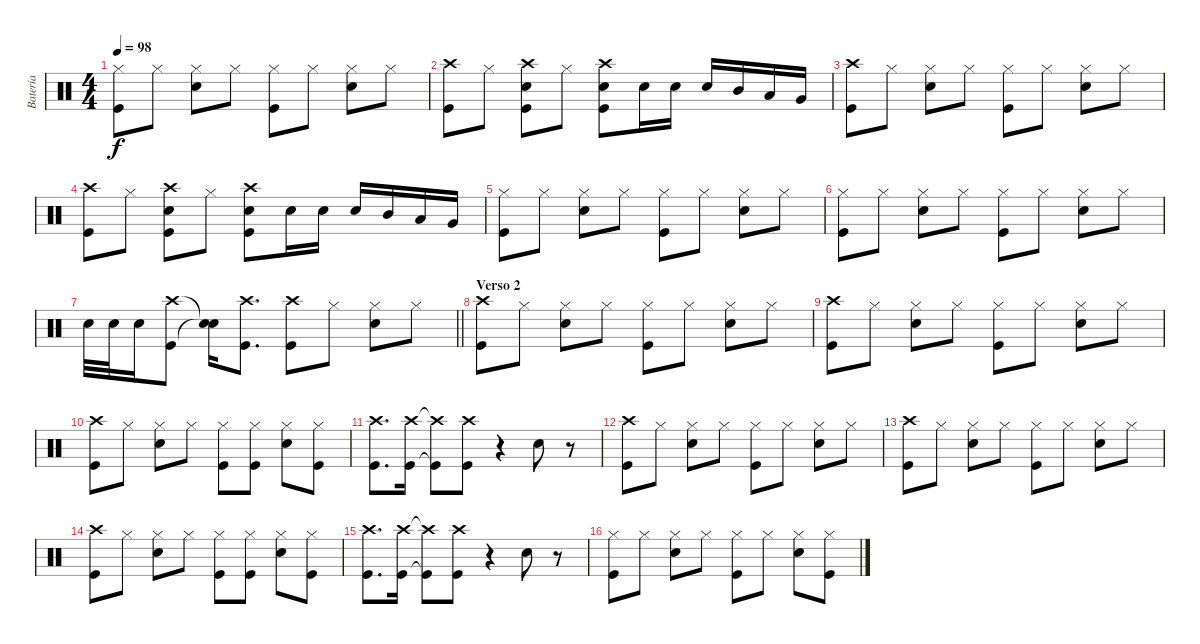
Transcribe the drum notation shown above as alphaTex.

\track ("Batería" "Batería") {instrument percussion}
\staff {score}
\articulation defaults
\ts (4 4)
\tempo 98
\clef neutral
\ks c
("Hi-Hat (closed)" "Kick (hit)").8{dy f} "Hi-Hat (closed)".8 ("Hi-Hat (closed)" "Electric Snare (hit)").8 "Hi-Hat (closed)".8 ("Hi-Hat (closed)" "Kick (hit)").8 "Hi-Hat (closed)".8 ("Hi-Hat (closed)" "Electric Snare (hit)").8 "Hi-Hat (closed)".8 |
("Crash high (hit)" "Kick (hit)").8 "Hi-Hat (closed)".8 ("Crash high (hit)" "Electric Snare (hit)" "Kick (hit)").8 "Hi-Hat (closed)".8 ("Crash high (hit)" "Electric Snare (hit)" "Kick (hit)").8 "Electric Snare (hit)".16 "Electric Snare (hit)".16 "Electric Snare (hit)".16 "Mid Tom (hit)".16 "Low Tom (hit)".16 "Very Low Tom (hit)".16 |
("Crash high (hit)" "Kick (hit)").8 "Hi-Hat (closed)".8 ("Hi-Hat (closed)" "Electric Snare (hit)").8 "Hi-Hat (closed)".8 ("Hi-Hat (closed)" "Kick (hit)").8 "Hi-Hat (closed)".8 ("Hi-Hat (closed)" "Electric Snare (hit)").8 "Hi-Hat (closed)".8 |
("Crash high (hit)" "Kick (hit)").8 "Hi-Hat (closed)".8 ("Crash high (hit)" "Electric Snare (hit)" "Kick (hit)").8 "Hi-Hat (closed)".8 ("Crash high (hit)" "Electric Snare (hit)" "Kick (hit)").8 "Electric Snare (hit)".16 "Electric Snare (hit)".16 "Electric Snare (hit)".16 "Mid Tom (hit)".16 "Low Tom (hit)".16 "Very Low Tom (hit)".16 |
("Hi-Hat (closed)" "Kick (hit)").8 "Hi-Hat (closed)".8 ("Hi-Hat (closed)" "Electric Snare (hit)").8 "Hi-Hat (closed)".8 ("Hi-Hat (closed)" "Kick (hit)").8 "Hi-Hat (closed)".8 ("Hi-Hat (closed)" "Electric Snare (hit)").8 "Hi-Hat (closed)".8 |
("Hi-Hat (closed)" "Kick (hit)").8 "Hi-Hat (closed)".8 ("Hi-Hat (closed)" "Electric Snare (hit)").8 "Hi-Hat (closed)".8 ("Hi-Hat (closed)" "Kick (hit)").8 "Hi-Hat (closed)".8 ("Hi-Hat (closed)" "Electric Snare (hit)").8 "Hi-Hat (closed)".8 |
\barLineRight lightlight "Electric Snare (hit)".32 "Electric Snare (hit)".32 "Electric Snare (hit)".16
("Crash high (hit)" "Kick (hit)").8 ("Snare (hit)"{t} "Snare (hit)"{t}).16 ("Crash high (hit)" "Kick (hit)").8{d} ("Crash high (hit)" "Kick (hit)").8 "Hi-Hat (closed)".8 ("Hi-Hat (closed)" "Electric Snare (hit)").8 "Hi-Hat (closed)".8 |
\section ("" "Verso 2")
("Crash high (hit)" "Kick (hit)").8 "Hi-Hat (closed)".8 ("Hi-Hat (closed)" "Electric Snare (hit)").8 "Hi-Hat (closed)".8 ("Hi-Hat (closed)" "Kick (hit)").8 "Hi-Hat (closed)".8 ("Hi-Hat (closed)" "Electric Snare (hit)").8 "Hi-Hat (closed)".8 |
("Crash high (hit)" "Kick (hit)").8 "Hi-Hat (closed)".8 ("Hi-Hat (closed)" "Electric Snare (hit)").8 "Hi-Hat (closed)".8 ("Hi-Hat (closed)" "Kick (hit)").8 "Hi-Hat (closed)".8 ("Hi-Hat (closed)" "Electric Snare (hit)").8 "Hi-Hat (closed)".8 |
("Crash high (hit)" "Kick (hit)").8 "Hi-Hat (closed)".8 ("Hi-Hat (closed)" "Electric Snare (hit)").8 "Hi-Hat (closed)".8 ("Hi-Hat (closed)" "Kick (hit)").8 ("Hi-Hat (closed)" "Kick (hit)").8 ("Hi-Hat (closed)" "Electric Snare (hit)").8 ("Hi-Hat (closed)" "Kick (hit)").8 |
("Crash high (hit)" "Kick (hit)").8{d} ("Crash high (hit)" "Kick (hit)").16 ("Crash high (hit)"{t} "Kick (hit)"{t}).8 ("Crash high (hit)" "Kick (hit)").8 r.4 "Electric Snare (hit)".8 r.8 |
("Crash high (hit)" "Kick (hit)").8 "Hi-Hat (closed)".8 ("Hi-Hat (closed)" "Electric Snare (hit)").8 "Hi-Hat (closed)".8 ("Hi-Hat (closed)" "Kick (hit)").8 "Hi-Hat (closed)".8 ("Hi-Hat (closed)" "Electric Snare (hit)").8 "Hi-Hat (closed)".8 |
("Crash high (hit)" "Kick (hit)").8 "Hi-Hat (closed)".8 ("Hi-Hat (closed)" "Electric Snare (hit)").8 "Hi-Hat (closed)".8 ("Hi-Hat (closed)" "Kick (hit)").8 "Hi-Hat (closed)".8 ("Hi-Hat (closed)" "Electric Snare (hit)").8 "Hi-Hat (closed)".8 |
("Crash high (hit)" "Kick (hit)").8 "Hi-Hat (closed)".8 ("Hi-Hat (closed)" "Electric Snare (hit)").8 "Hi-Hat (closed)".8 ("Hi-Hat (closed)" "Kick (hit)").8 ("Hi-Hat (closed)" "Kick (hit)").8 ("Hi-Hat (closed)" "Electric Snare (hit)").8 ("Hi-Hat (closed)" "Kick (hit)").8 |
("Crash high (hit)" "Kick (hit)").8{d} ("Crash high (hit)" "Kick (hit)").16 ("Crash high (hit)"{t} "Kick (hit)"{t}).8 ("Crash high (hit)" "Kick (hit)").8 r.4 "Electric Snare (hit)".8 r.8 |
("Hi-Hat (closed)" "Kick (hit)").8 "Hi-Hat (closed)".8 ("Hi-Hat (closed)" "Electric Snare (hit)").8 "Hi-Hat (closed)".8 ("Hi-Hat (closed)" "Kick (hit)").8 "Hi-Hat (closed)".8 ("Hi-Hat (closed)" "Electric Snare (hit)").8 ("Hi-Hat (closed)" "Kick (hit)").8
